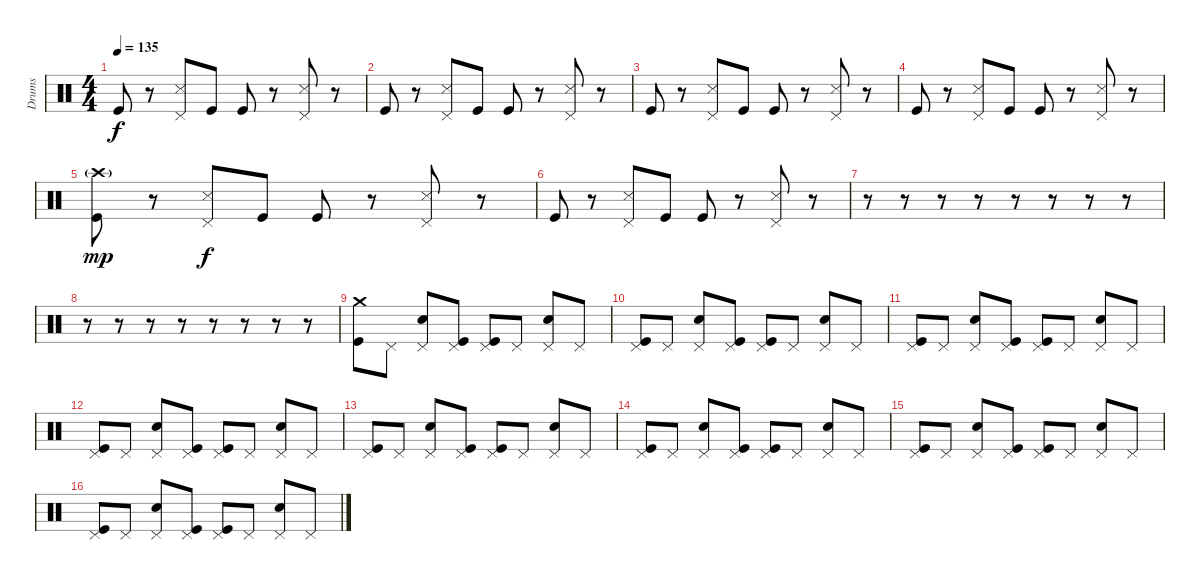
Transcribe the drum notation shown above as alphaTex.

\track ("Drums" "Drums") {instrument percussion}
\staff {score}
\articulation defaults
\ts (4 4)
\tempo 135
\clef neutral
\ks c "Kick (hit)".8{dy f}
r.8 ("Pedal Hi-Hat (hit)" "Snare (side stick) 3").8 "Kick (hit)".8 "Kick (hit)".8 r.8 ("Pedal Hi-Hat (hit)" "Snare (side stick) 3").8 r.8 |
"Kick (hit)".8 r.8 ("Pedal Hi-Hat (hit)" "Snare (side stick) 3").8 "Kick (hit)".8 "Kick (hit)".8 r.8 ("Pedal Hi-Hat (hit)" "Snare (side stick) 3").8 r.8 |
"Kick (hit)".8 r.8 ("Pedal Hi-Hat (hit)" "Snare (side stick) 3").8 "Kick (hit)".8 "Kick (hit)".8 r.8 ("Pedal Hi-Hat (hit)" "Snare (side stick) 3").8 r.8 |
"Kick (hit)".8 r.8 ("Pedal Hi-Hat (hit)" "Snare (side stick) 3").8 "Kick (hit)".8 "Kick (hit)".8 r.8 ("Pedal Hi-Hat (hit)" "Snare (side stick) 3").8 r.8 |
("Crash high (hit)"{g} "Kick (hit)").8{dy mp} r.8 ("Pedal Hi-Hat (hit)" "Snare (side stick) 3").8{dy f} "Kick (hit)".8 "Kick (hit)".8 r.8 ("Pedal Hi-Hat (hit)" "Snare (side stick) 3").8 r.8 |
"Kick (hit)".8 r.8 ("Pedal Hi-Hat (hit)" "Snare (side stick) 3").8 "Kick (hit)".8 "Kick (hit)".8 r.8 ("Pedal Hi-Hat (hit)" "Snare (side stick) 3").8 r.8 |
r.8 r.8 r.8 r.8 r.8 r.8 r.8 r.8 |
r.8 r.8 r.8 r.8 r.8 r.8 r.8 r.8 |
("Crash medium (hit)" "Kick (hit)").8 "Pedal Hi-Hat (hit)".8 ("Pedal Hi-Hat (hit)" "Electric Snare (hit)").8 ("Pedal Hi-Hat (hit)" "Kick (hit)").8 ("Pedal Hi-Hat (hit)" "Kick (hit)").8 "Pedal Hi-Hat (hit)".8 ("Pedal Hi-Hat (hit)" "Electric Snare (hit)").8 "Pedal Hi-Hat (hit)".8 |
("Pedal Hi-Hat (hit)" "Kick (hit)").8 "Pedal Hi-Hat (hit)".8 ("Pedal Hi-Hat (hit)" "Electric Snare (hit)").8 ("Pedal Hi-Hat (hit)" "Kick (hit)").8 ("Pedal Hi-Hat (hit)" "Kick (hit)").8 "Pedal Hi-Hat (hit)".8 ("Pedal Hi-Hat (hit)" "Electric Snare (hit)").8 "Pedal Hi-Hat (hit)".8 |
("Pedal Hi-Hat (hit)" "Kick (hit)").8 "Pedal Hi-Hat (hit)".8 ("Pedal Hi-Hat (hit)" "Electric Snare (hit)").8 ("Pedal Hi-Hat (hit)" "Kick (hit)").8 ("Pedal Hi-Hat (hit)" "Kick (hit)").8 "Pedal Hi-Hat (hit)".8 ("Pedal Hi-Hat (hit)" "Electric Snare (hit)").8 "Pedal Hi-Hat (hit)".8 |
("Pedal Hi-Hat (hit)" "Kick (hit)").8 "Pedal Hi-Hat (hit)".8 ("Pedal Hi-Hat (hit)" "Electric Snare (hit)").8 ("Pedal Hi-Hat (hit)" "Kick (hit)").8 ("Pedal Hi-Hat (hit)" "Kick (hit)").8 "Pedal Hi-Hat (hit)".8 ("Pedal Hi-Hat (hit)" "Electric Snare (hit)").8 "Pedal Hi-Hat (hit)".8 |
("Pedal Hi-Hat (hit)" "Kick (hit)").8 "Pedal Hi-Hat (hit)".8 ("Pedal Hi-Hat (hit)" "Electric Snare (hit)").8 ("Pedal Hi-Hat (hit)" "Kick (hit)").8 ("Pedal Hi-Hat (hit)" "Kick (hit)").8 "Pedal Hi-Hat (hit)".8 ("Pedal Hi-Hat (hit)" "Electric Snare (hit)").8 "Pedal Hi-Hat (hit)".8 |
("Pedal Hi-Hat (hit)" "Kick (hit)").8 "Pedal Hi-Hat (hit)".8 ("Pedal Hi-Hat (hit)" "Electric Snare (hit)").8 ("Pedal Hi-Hat (hit)" "Kick (hit)").8 ("Pedal Hi-Hat (hit)" "Kick (hit)").8 "Pedal Hi-Hat (hit)".8 ("Pedal Hi-Hat (hit)" "Electric Snare (hit)").8 "Pedal Hi-Hat (hit)".8 |
("Pedal Hi-Hat (hit)" "Kick (hit)").8 "Pedal Hi-Hat (hit)".8 ("Pedal Hi-Hat (hit)" "Electric Snare (hit)").8 ("Pedal Hi-Hat (hit)" "Kick (hit)").8 ("Pedal Hi-Hat (hit)" "Kick (hit)").8 "Pedal Hi-Hat (hit)".8 ("Pedal Hi-Hat (hit)" "Electric Snare (hit)").8 "Pedal Hi-Hat (hit)".8 |
("Pedal Hi-Hat (hit)" "Kick (hit)").8 "Pedal Hi-Hat (hit)".8 ("Pedal Hi-Hat (hit)" "Electric Snare (hit)").8 ("Pedal Hi-Hat (hit)" "Kick (hit)").8 ("Pedal Hi-Hat (hit)" "Kick (hit)").8 "Pedal Hi-Hat (hit)".8 ("Pedal Hi-Hat (hit)" "Electric Snare (hit)").8 "Pedal Hi-Hat (hit)".8
